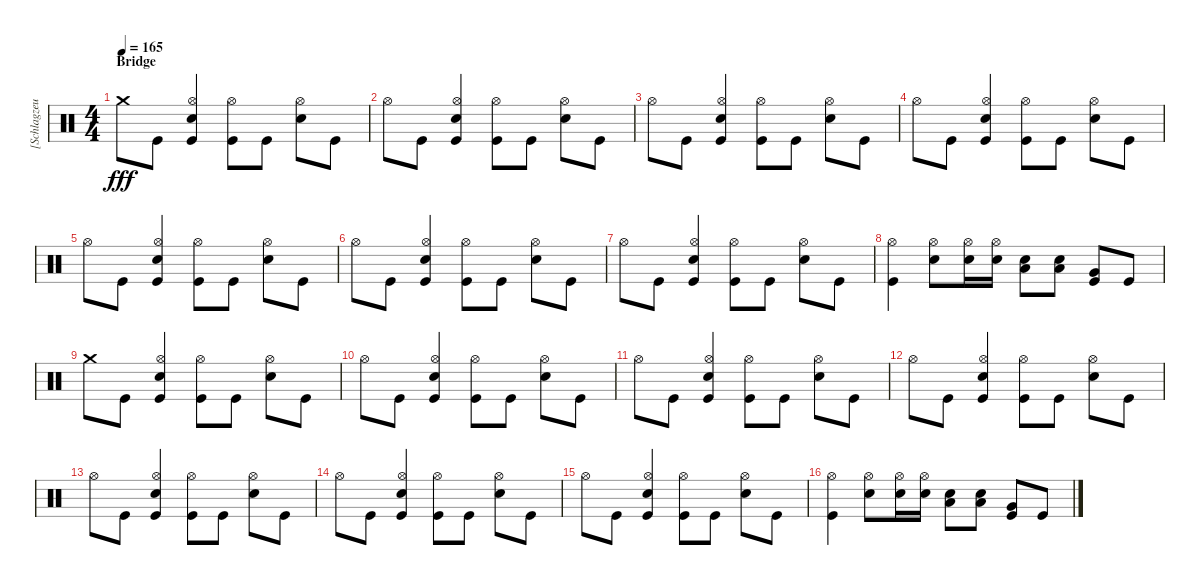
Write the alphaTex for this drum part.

\track ("[Schlagzeug]" "[Schlagzeu") {instrument percussion}
\staff {score}
\articulation defaults
\ts (4 4)
\section ("" "Bridge")
\tempo 165
\clef neutral
\ks c "Crash medium (hit)".8{dy fff} "Kick (hit)".8
("Hi-Hat (open)" "Electric Snare (hit)" "Kick (hit)").4 ("Hi-Hat (open)" "Kick (hit)").8 "Kick (hit)".8 ("Hi-Hat (open)" "Electric Snare (hit)").8 "Kick (hit)".8 |
"Hi-Hat (open)".8 "Kick (hit)".8 ("Hi-Hat (open)" "Electric Snare (hit)" "Kick (hit)").4 ("Hi-Hat (open)" "Kick (hit)").8 "Kick (hit)".8 ("Hi-Hat (open)" "Electric Snare (hit)").8 "Kick (hit)".8 |
"Hi-Hat (open)".8 "Kick (hit)".8 ("Hi-Hat (open)" "Electric Snare (hit)" "Kick (hit)").4 ("Hi-Hat (open)" "Kick (hit)").8 "Kick (hit)".8 ("Hi-Hat (open)" "Electric Snare (hit)").8 "Kick (hit)".8 |
"Hi-Hat (open)".8 "Kick (hit)".8 ("Hi-Hat (open)" "Electric Snare (hit)" "Kick (hit)").4 ("Hi-Hat (open)" "Kick (hit)").8 "Kick (hit)".8 ("Hi-Hat (open)" "Electric Snare (hit)").8 "Kick (hit)".8 |
"Hi-Hat (open)".8 "Kick (hit)".8 ("Hi-Hat (open)" "Electric Snare (hit)" "Kick (hit)").4 ("Hi-Hat (open)" "Kick (hit)").8 "Kick (hit)".8 ("Hi-Hat (open)" "Electric Snare (hit)").8 "Kick (hit)".8 |
"Hi-Hat (open)".8 "Kick (hit)".8 ("Hi-Hat (open)" "Electric Snare (hit)" "Kick (hit)").4 ("Hi-Hat (open)" "Kick (hit)").8 "Kick (hit)".8 ("Hi-Hat (open)" "Electric Snare (hit)").8 "Kick (hit)".8 |
"Hi-Hat (open)".8 "Kick (hit)".8 ("Hi-Hat (open)" "Electric Snare (hit)" "Kick (hit)").4 ("Hi-Hat (open)" "Kick (hit)").8 "Kick (hit)".8 ("Hi-Hat (open)" "Electric Snare (hit)").8 "Kick (hit)".8 |
("Hi-Hat (open)" "Kick (hit)").4 ("Hi-Hat (open)" "Electric Snare (hit)").8 ("Hi-Hat (open)" "Electric Snare (hit)").16 ("Hi-Hat (open)" "Electric Snare (hit)").16 ("Low Tom (hit)" "Electric Snare (hit)").8 ("Low Tom (hit)" "Electric Snare (hit)").8 ("Very Low Tom (hit)" "Kick (hit)").8 "Kick (hit)".8 |
"Crash medium (hit)".8 "Kick (hit)".8 ("Hi-Hat (open)" "Electric Snare (hit)" "Kick (hit)").4 ("Hi-Hat (open)" "Kick (hit)").8 "Kick (hit)".8 ("Hi-Hat (open)" "Electric Snare (hit)").8 "Kick (hit)".8 |
"Hi-Hat (open)".8 "Kick (hit)".8 ("Hi-Hat (open)" "Electric Snare (hit)" "Kick (hit)").4 ("Hi-Hat (open)" "Kick (hit)").8 "Kick (hit)".8 ("Hi-Hat (open)" "Electric Snare (hit)").8 "Kick (hit)".8 |
"Hi-Hat (open)".8 "Kick (hit)".8 ("Hi-Hat (open)" "Electric Snare (hit)" "Kick (hit)").4 ("Hi-Hat (open)" "Kick (hit)").8 "Kick (hit)".8 ("Hi-Hat (open)" "Electric Snare (hit)").8 "Kick (hit)".8 |
"Hi-Hat (open)".8 "Kick (hit)".8 ("Hi-Hat (open)" "Electric Snare (hit)" "Kick (hit)").4 ("Hi-Hat (open)" "Kick (hit)").8 "Kick (hit)".8 ("Hi-Hat (open)" "Electric Snare (hit)").8 "Kick (hit)".8 |
"Hi-Hat (open)".8 "Kick (hit)".8 ("Hi-Hat (open)" "Electric Snare (hit)" "Kick (hit)").4 ("Hi-Hat (open)" "Kick (hit)").8 "Kick (hit)".8 ("Hi-Hat (open)" "Electric Snare (hit)").8 "Kick (hit)".8 |
"Hi-Hat (open)".8 "Kick (hit)".8 ("Hi-Hat (open)" "Electric Snare (hit)" "Kick (hit)").4 ("Hi-Hat (open)" "Kick (hit)").8 "Kick (hit)".8 ("Hi-Hat (open)" "Electric Snare (hit)").8 "Kick (hit)".8 |
"Hi-Hat (open)".8 "Kick (hit)".8 ("Hi-Hat (open)" "Electric Snare (hit)" "Kick (hit)").4 ("Hi-Hat (open)" "Kick (hit)").8 "Kick (hit)".8 ("Hi-Hat (open)" "Electric Snare (hit)").8 "Kick (hit)".8 |
("Hi-Hat (open)" "Kick (hit)").4 ("Hi-Hat (open)" "Electric Snare (hit)").8 ("Hi-Hat (open)" "Electric Snare (hit)").16 ("Hi-Hat (open)" "Electric Snare (hit)").16 ("Low Tom (hit)" "Electric Snare (hit)").8 ("Low Tom (hit)" "Electric Snare (hit)").8 ("Very Low Tom (hit)" "Kick (hit)").8 "Kick (hit)".8
